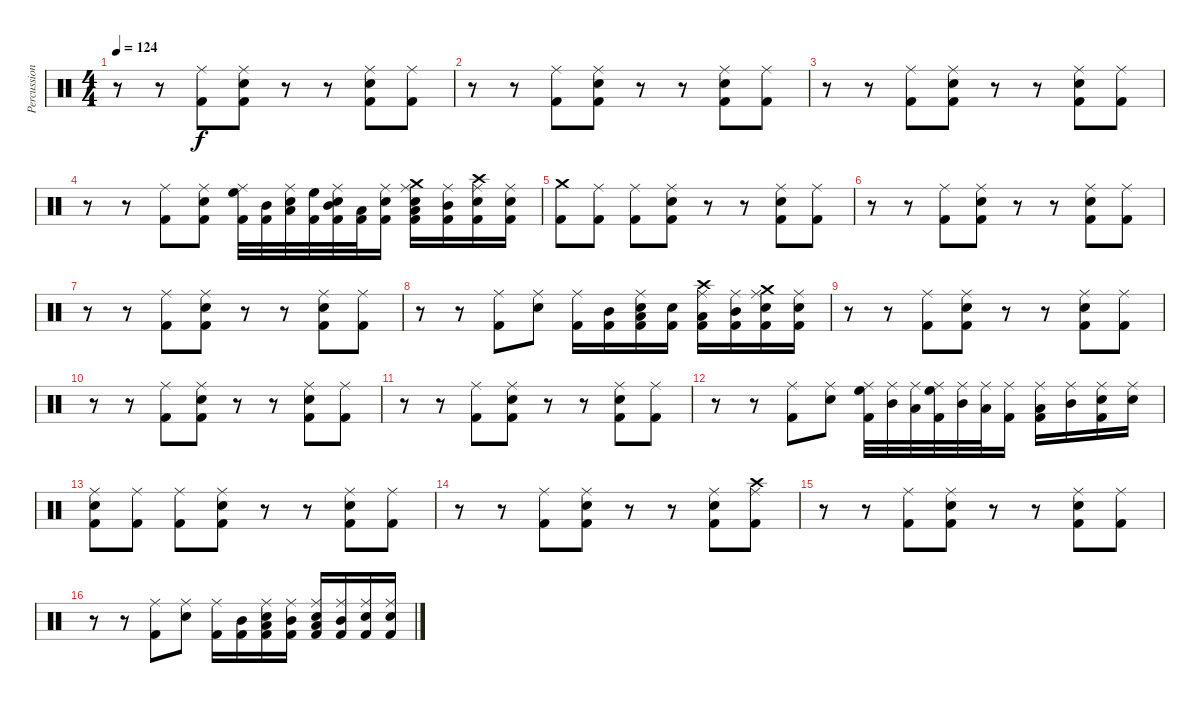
\track ("Percussions" "Percussion") {instrument percussion}
\staff {score}
\articulation defaults
\ts (4 4)
\tempo 124
\clef neutral
\ks c
r.8{dy f} r.8 ("Kick (hit) 2" "Ride (middle)").8 ("Kick (hit) 2" "Electric Snare (hit)" "Ride (middle)").8 r.8 r.8 ("Kick (hit) 2" "Electric Snare (hit)" "Ride (middle)").8 ("Kick (hit) 2" "Ride (middle)").8 |
r.8 r.8 ("Kick (hit) 2" "Ride (middle)").8 ("Kick (hit) 2" "Electric Snare (hit)" "Ride (middle)").8 r.8 r.8 ("Kick (hit) 2" "Electric Snare (hit)" "Ride (middle)").8 ("Kick (hit) 2" "Ride (middle)").8 |
r.8 r.8 ("Kick (hit) 2" "Ride (middle)").8 ("Kick (hit) 2" "Electric Snare (hit)" "Ride (middle)").8 r.8 r.8 ("Kick (hit) 2" "Electric Snare (hit)" "Ride (middle)").8 ("Kick (hit) 2" "Ride (middle)").8 |
r.8 r.8 ("Kick (hit) 2" "Ride (middle)").8 ("Kick (hit) 2" "Electric Snare (hit)" "Ride (middle)").8 ("Kick (hit) 2" "High Floor Tom (hit)" "Ride (middle)").32 ("Kick (hit) 2" "Mid Tom (hit)").32 ("Low Tom (hit)" "Electric Snare (hit)" "Ride (middle)").32 ("Kick (hit) 2" "High Floor Tom (hit)").32 ("Kick (hit) 2" "Mid Tom (hit)" "Electric Snare (hit)" "Ride (middle)").32 ("Low Tom (hit)" "Kick (hit) 2").32 ("Kick (hit) 2" "Electric Snare (hit)" "Ride (middle)").16 ("Kick (hit) 2" "Low Tom (hit)" "Electric Snare (hit)" "Crash medium (hit)" "Ride (middle)").16 ("Kick (hit) 2" "Mid Tom (hit)" "Ride (middle)").16 ("Kick (hit) 2" "Electric Snare (hit)" "Crash high (hit)" "Ride (middle)").16 ("Kick (hit) 2" "Electric Snare (hit)" "Ride (middle)").16 |
("Kick (hit) 2" "Crash medium (hit)").8 ("Kick (hit) 2" "Ride (middle)").8 ("Kick (hit) 2" "Ride (middle)").8 ("Kick (hit) 2" "Electric Snare (hit)" "Ride (middle)").8 r.8 r.8 ("Kick (hit) 2" "Electric Snare (hit)" "Ride (middle)").8 ("Kick (hit) 2" "Ride (middle)").8 |
r.8 r.8 ("Kick (hit) 2" "Ride (middle)").8 ("Kick (hit) 2" "Electric Snare (hit)" "Ride (middle)").8 r.8 r.8 ("Kick (hit) 2" "Electric Snare (hit)" "Ride (middle)").8 ("Kick (hit) 2" "Ride (middle)").8 |
r.8 r.8 ("Kick (hit) 2" "Ride (middle)").8 ("Kick (hit) 2" "Electric Snare (hit)" "Ride (middle)").8 r.8 r.8 ("Kick (hit) 2" "Electric Snare (hit)" "Ride (middle)").8 ("Kick (hit) 2" "Ride (middle)").8 |
r.8 r.8 ("Kick (hit) 2" "Ride (middle)").8 ("Electric Snare (hit)" "Ride (middle)").8 ("Kick (hit) 2" "Ride (middle)").16 ("Kick (hit) 2" "Mid Tom (hit)").16 ("Low Tom (hit)" "Kick (hit) 2" "Electric Snare (hit)" "Ride (middle)").16 ("Kick (hit) 2" "Electric Snare (hit)").16 ("Kick (hit) 2" "Low Tom (hit)" "Crash high (hit)" "Ride (middle)").16 ("Kick (hit) 2" "Mid Tom (hit)" "Ride (middle)").16 ("Kick (hit) 2" "Electric Snare (hit)" "Crash medium (hit)" "Ride (middle)").16 ("Kick (hit) 2" "Electric Snare (hit)" "Ride (middle)").16 |
r.8 r.8 ("Kick (hit) 2" "Ride (middle)").8 ("Kick (hit) 2" "Electric Snare (hit)" "Ride (middle)").8 r.8 r.8 ("Kick (hit) 2" "Electric Snare (hit)" "Ride (middle)").8 ("Kick (hit) 2" "Ride (middle)").8 |
r.8 r.8 ("Kick (hit) 2" "Ride (middle)").8 ("Kick (hit) 2" "Electric Snare (hit)" "Ride (middle)").8 r.8 r.8 ("Kick (hit) 2" "Electric Snare (hit)" "Ride (middle)").8 ("Kick (hit) 2" "Ride (middle)").8 |
r.8 r.8 ("Kick (hit) 2" "Ride (middle)").8 ("Kick (hit) 2" "Electric Snare (hit)" "Ride (middle)").8 r.8 r.8 ("Kick (hit) 2" "Electric Snare (hit)" "Ride (middle)").8 ("Kick (hit) 2" "Ride (middle)").8 |
r.8 r.8 ("Kick (hit) 2" "Ride (middle)").8 ("Electric Snare (hit)" "Ride (middle)").8 ("Kick (hit) 2" "High Floor Tom (hit)" "Ride (middle)").32 ("Mid Tom (hit)" "Ride (middle)").32 ("Low Tom (hit)" "Ride (middle)").32 ("Kick (hit) 2" "High Floor Tom (hit)" "Ride (middle)").32 ("Mid Tom (hit)" "Ride (middle)").32 ("Low Tom (hit)" "Ride (middle)").32 ("Kick (hit) 2" "Ride (middle)").16 ("Kick (hit) 2" "Low Tom (hit)" "Ride (middle)").16 ("Mid Tom (hit)" "Ride (middle)").16 ("Kick (hit) 2" "Electric Snare (hit)" "Ride (middle)").16 ("Electric Snare (hit)" "Ride (middle)").16 |
("Kick (hit) 2" "Electric Snare (hit)" "Ride (middle)").8 ("Kick (hit) 2" "Ride (middle)").8 ("Kick (hit) 2" "Ride (middle)").8 ("Kick (hit) 2" "Electric Snare (hit)" "Ride (middle)").8 r.8 r.8 ("Kick (hit) 2" "Electric Snare (hit)" "Ride (middle)").8 ("Kick (hit) 2" "Ride (middle)").8 |
r.8 r.8 ("Kick (hit) 2" "Ride (middle)").8 ("Kick (hit) 2" "Electric Snare (hit)" "Ride (middle)").8 r.8 r.8 ("Kick (hit) 2" "Electric Snare (hit)" "Ride (middle)").8 ("Kick (hit) 2" "Crash high (hit)" "Ride (middle)").8 |
r.8 r.8 ("Kick (hit) 2" "Ride (middle)").8 ("Kick (hit) 2" "Electric Snare (hit)" "Ride (middle)").8 r.8 r.8 ("Kick (hit) 2" "Electric Snare (hit)" "Ride (middle)").8 ("Kick (hit) 2" "Ride (middle)").8 |
r.8 r.8 ("Kick (hit) 2" "Ride (middle)").8 ("Electric Snare (hit)" "Ride (middle)").8 ("Kick (hit) 2" "Ride (middle)").16 ("Kick (hit) 2" "Mid Tom (hit)").16 ("Low Tom (hit)" "Kick (hit) 2" "Electric Snare (hit)" "Ride (middle)").16 ("Kick (hit) 2" "Mid Tom (hit)" "Ride (middle)").16 ("Kick (hit) 2" "Low Tom (hit)" "Electric Snare (hit)" "Ride (middle)").16 ("Kick (hit) 2" "Mid Tom (hit)" "Ride (middle)").16 ("Kick (hit) 2" "Electric Snare (hit)" "Ride (middle)").16 ("Kick (hit) 2" "Electric Snare (hit)" "Ride (middle)").16
